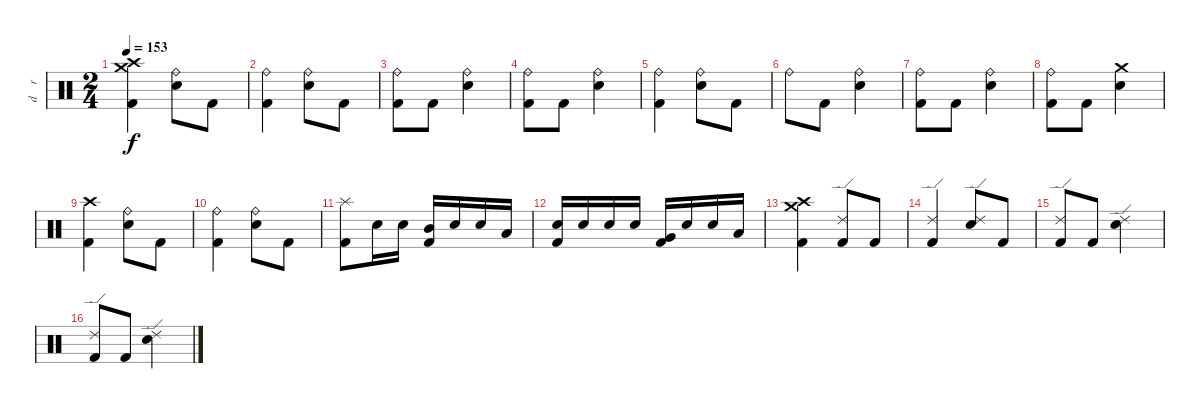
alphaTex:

\track ("d    r     u    m    s" "d    r    ") {instrument percussion}
\staff {score}
\articulation defaults
\ts (2 4)
\tempo 153
\clef neutral
\ks c
("Crash high (hit)" "Crash medium (hit)" "Kick (hit) 2").4{dy f} ("Ride (bell)" "Electric Snare (hit)").8 "Kick (hit) 2".8 |
("Ride (bell)" "Kick (hit) 2").4 ("Ride (bell)" "Electric Snare (hit)").8 "Kick (hit) 2".8 |
("Ride (bell)" "Kick (hit) 2").8 "Kick (hit) 2".8 ("Ride (bell)" "Electric Snare (hit)").4 |
("Ride (bell)" "Kick (hit) 2").8 "Kick (hit) 2".8 ("Ride (bell)" "Electric Snare (hit)").4 |
("Ride (bell)" "Kick (hit) 2").4 ("Ride (bell)" "Electric Snare (hit)").8 "Kick (hit) 2".8 |
"Ride (bell)".8 "Kick (hit) 2".8 ("Ride (bell)" "Electric Snare (hit)").4 |
("Ride (bell)" "Kick (hit) 2").8 "Kick (hit) 2".8 ("Ride (bell)" "Electric Snare (hit)").4 |
("Ride (bell)" "Kick (hit) 2").8 "Kick (hit) 2".8 ("Crash medium (hit)" "Electric Snare (hit)").4 |
("Crash high (hit)" "Kick (hit) 2").4 ("Ride (bell)" "Electric Snare (hit)").8 "Kick (hit) 2".8 |
("Ride (bell)" "Kick (hit) 2").4 ("Ride (bell)" "Electric Snare (hit)").8 "Kick (hit) 2".8 |
("Splash (hit)" "Kick (hit) 2").8 "Electric Snare (hit)".16 "Electric Snare (hit)".16 ("Mid Tom (hit)" "Kick (hit) 2").16 "Electric Snare (hit)".16 "Electric Snare (hit)".16 "Low Tom (hit)".16 |
("Electric Snare (hit)" "Kick (hit) 2").16 "Electric Snare (hit)".16 "Electric Snare (hit)".16 "Electric Snare (hit)".16 ("Very Low Tom (hit)" "Kick (hit) 2").16 "Electric Snare (hit)".16 "Electric Snare (hit)".16 "Low Floor Tom (hit)".16 |
("Crash high (hit)" "Crash medium (hit)" "Kick (hit) 2").4 ("Ride (edge) 2" "Kick (hit) 2").8 "Kick (hit) 2".8 |
("Ride (edge) 2" "Kick (hit) 2").4 ("Ride (edge) 2" "Electric Snare (hit)").8 "Kick (hit) 2".8 |
("Ride (edge) 2" "Kick (hit) 2").8 "Kick (hit) 2".8 ("Ride (edge) 2" "Electric Snare (hit)").4 |
("Ride (edge) 2" "Kick (hit) 2").8 "Kick (hit) 2".8 ("Ride (edge) 2" "Electric Snare (hit)").4
